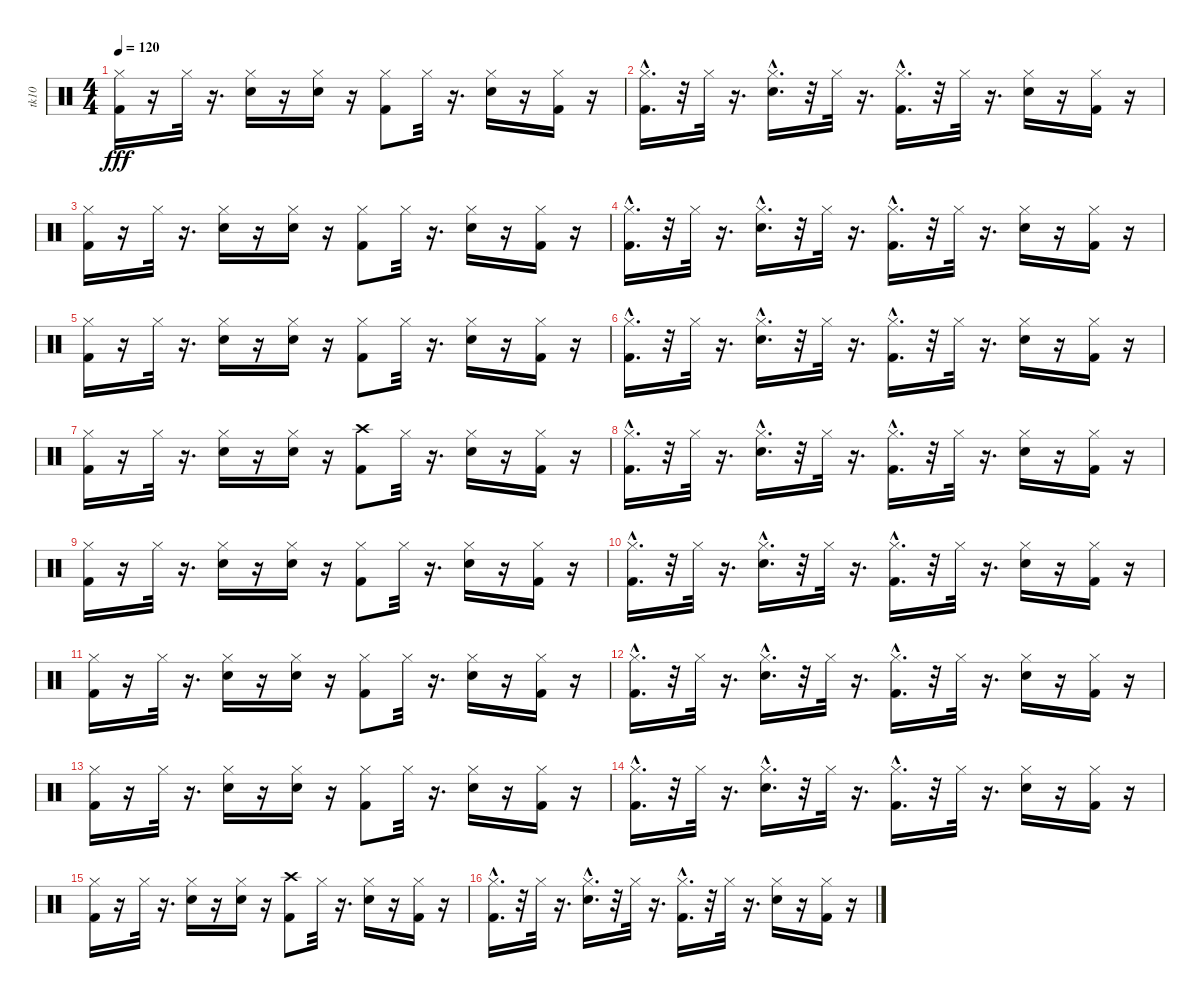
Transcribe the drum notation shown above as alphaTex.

\track ("tk10" "tk10") {instrument percussion}
\staff {score}
\articulation defaults
\ts (4 4)
\tempo 120
\clef neutral
\ks c
("Kick (hit) 2" "Hi-Hat (closed)").16{dy fff} r.16 "Hi-Hat (closed)".32 r.16{d} ("Snare (hit) 2" "Hi-Hat (closed)").16 r.16 ("Hi-Hat (closed)" "Snare (hit) 2").16 r.16 ("Hi-Hat (closed)" "Kick (hit) 2").8 "Hi-Hat (closed)".32 r.16{d} ("Hi-Hat (closed)" "Snare (hit) 2").16 r.16 ("Hi-Hat (closed)" "Kick (hit) 2").16 r.16 |
("Hi-Hat (closed)" "Kick (hit) 2"{hac}).16{d} r.32 "Hi-Hat (closed)".32 r.16{d} ("Snare (hit) 2"{hac} "Hi-Hat (closed)").16{d} r.32 "Hi-Hat (closed)".32 r.16{d} ("Kick (hit) 2"{hac} "Hi-Hat (closed)").16{d} r.32 "Hi-Hat (closed)".32 r.16{d} ("Hi-Hat (closed)" "Snare (hit) 2").16 r.16 ("Hi-Hat (closed)" "Kick (hit) 2").16 r.16 |
("Hi-Hat (closed)" "Kick (hit) 2").16 r.16 "Hi-Hat (closed)".32 r.16{d} ("Snare (hit) 2" "Hi-Hat (closed)").16 r.16 ("Hi-Hat (closed)" "Snare (hit) 2").16 r.16 ("Kick (hit) 2" "Hi-Hat (closed)").8 "Hi-Hat (closed)".32 r.16{d} ("Hi-Hat (closed)" "Snare (hit) 2").16 r.16 ("Hi-Hat (closed)" "Kick (hit) 2").16 r.16 |
("Kick (hit) 2"{hac} "Hi-Hat (closed)").16{d} r.32 "Hi-Hat (closed)".32 r.16{d} ("Hi-Hat (closed)" "Snare (hit) 2"{hac}).16{d} r.32 "Hi-Hat (closed)".32 r.16{d} ("Kick (hit) 2"{hac} "Hi-Hat (closed)").16{d} r.32 "Hi-Hat (closed)".32 r.16{d} ("Snare (hit) 2" "Hi-Hat (closed)").16 r.16 ("Hi-Hat (closed)" "Kick (hit) 2").16 r.16 |
("Hi-Hat (closed)" "Kick (hit) 2").16 r.16 "Hi-Hat (closed)".32 r.16{d} ("Hi-Hat (closed)" "Snare (hit) 2").16 r.16 ("Snare (hit) 2" "Hi-Hat (closed)").16 r.16 ("Hi-Hat (closed)" "Kick (hit) 2").8 "Hi-Hat (closed)".32 r.16{d} ("Snare (hit) 2" "Hi-Hat (closed)").16 r.16 ("Hi-Hat (closed)" "Kick (hit) 2").16 r.16 |
("Hi-Hat (closed)" "Kick (hit) 2"{hac}).16{d} r.32 "Hi-Hat (closed)".32 r.16{d} ("Hi-Hat (closed)" "Snare (hit) 2"{hac}).16{d} r.32 "Hi-Hat (closed)".32 r.16{d} ("Kick (hit) 2"{hac} "Hi-Hat (closed)").16{d} r.32 "Hi-Hat (closed)".32 r.16{d} ("Snare (hit) 2" "Hi-Hat (closed)").16 r.16 ("Kick (hit) 2" "Hi-Hat (closed)").16 r.16 |
("Hi-Hat (closed)" "Kick (hit) 2").16 r.16 "Hi-Hat (closed)".32 r.16{d} ("Snare (hit) 2" "Hi-Hat (closed)").16 r.16 ("Hi-Hat (closed)" "Snare (hit) 2").16 r.16 ("Crash high (hit)" "Kick (hit) 2").8 "Hi-Hat (closed)".32 r.16{d} ("Snare (hit) 2" "Hi-Hat (closed)").16 r.16 ("Hi-Hat (closed)" "Kick (hit) 2").16 r.16 |
("Hi-Hat (closed)" "Kick (hit) 2"{hac}).16{d} r.32 "Hi-Hat (closed)".32 r.16{d} ("Snare (hit) 2"{hac} "Hi-Hat (closed)").16{d} r.32 "Hi-Hat (closed)".32 r.16{d} ("Kick (hit) 2"{hac} "Hi-Hat (closed)").16{d} r.32 "Hi-Hat (closed)".32 r.16{d} ("Snare (hit) 2" "Hi-Hat (closed)").16 r.16 ("Hi-Hat (closed)" "Kick (hit) 2").16 r.16 |
("Kick (hit) 2" "Hi-Hat (closed)").16 r.16 "Hi-Hat (closed)".32 r.16{d} ("Snare (hit) 2" "Hi-Hat (closed)").16 r.16 ("Hi-Hat (closed)" "Snare (hit) 2").16 r.16 ("Kick (hit) 2" "Hi-Hat (closed)").8 "Hi-Hat (closed)".32 r.16{d} ("Hi-Hat (closed)" "Snare (hit) 2").16 r.16 ("Hi-Hat (closed)" "Kick (hit) 2").16 r.16 |
("Hi-Hat (closed)" "Kick (hit) 2"{hac}).16{d} r.32 "Hi-Hat (closed)".32 r.16{d} ("Hi-Hat (closed)" "Snare (hit) 2"{hac}).16{d} r.32 "Hi-Hat (closed)".32 r.16{d} ("Kick (hit) 2"{hac} "Hi-Hat (closed)").16{d} r.32 "Hi-Hat (closed)".32 r.16{d} ("Snare (hit) 2" "Hi-Hat (closed)").16 r.16 ("Hi-Hat (closed)" "Kick (hit) 2").16 r.16 |
("Hi-Hat (closed)" "Kick (hit) 2").16 r.16 "Hi-Hat (closed)".32 r.16{d} ("Hi-Hat (closed)" "Snare (hit) 2").16 r.16 ("Snare (hit) 2" "Hi-Hat (closed)").16 r.16 ("Hi-Hat (closed)" "Kick (hit) 2").8 "Hi-Hat (closed)".32 r.16{d} ("Hi-Hat (closed)" "Snare (hit) 2").16 r.16 ("Kick (hit) 2" "Hi-Hat (closed)").16 r.16 |
("Kick (hit) 2"{hac} "Hi-Hat (closed)").16{d} r.32 "Hi-Hat (closed)".32 r.16{d} ("Hi-Hat (closed)" "Snare (hit) 2"{hac}).16{d} r.32 "Hi-Hat (closed)".32 r.16{d} ("Kick (hit) 2"{hac} "Hi-Hat (closed)").16{d} r.32 "Hi-Hat (closed)".32 r.16{d} ("Snare (hit) 2" "Hi-Hat (closed)").16 r.16 ("Kick (hit) 2" "Hi-Hat (closed)").16 r.16 |
("Kick (hit) 2" "Hi-Hat (closed)").16 r.16 "Hi-Hat (closed)".32 r.16{d} ("Snare (hit) 2" "Hi-Hat (closed)").16 r.16 ("Hi-Hat (closed)" "Snare (hit) 2").16 r.16 ("Hi-Hat (closed)" "Kick (hit) 2").8 "Hi-Hat (closed)".32 r.16{d} ("Hi-Hat (closed)" "Snare (hit) 2").16 r.16 ("Hi-Hat (closed)" "Kick (hit) 2").16 r.16 |
("Hi-Hat (closed)" "Kick (hit) 2"{hac}).16{d} r.32 "Hi-Hat (closed)".32 r.16{d} ("Snare (hit) 2"{hac} "Hi-Hat (closed)").16{d} r.32 "Hi-Hat (closed)".32 r.16{d} ("Hi-Hat (closed)" "Kick (hit) 2"{hac}).16{d} r.32 "Hi-Hat (closed)".32 r.16{d} ("Hi-Hat (closed)" "Snare (hit) 2").16 r.16 ("Kick (hit) 2" "Hi-Hat (closed)").16 r.16 |
("Kick (hit) 2" "Hi-Hat (closed)").16 r.16 "Hi-Hat (closed)".32 r.16{d} ("Hi-Hat (closed)" "Snare (hit) 2").16 r.16 ("Hi-Hat (closed)" "Snare (hit) 2").16 r.16 ("Crash high (hit)" "Kick (hit) 2").8 "Hi-Hat (closed)".32 r.16{d} ("Hi-Hat (closed)" "Snare (hit) 2").16 r.16 ("Kick (hit) 2" "Hi-Hat (closed)").16 r.16 |
("Kick (hit) 2"{hac} "Hi-Hat (closed)").16{d} r.32 "Hi-Hat (closed)".32 r.16{d} ("Hi-Hat (closed)" "Snare (hit) 2"{hac}).16{d} r.32 "Hi-Hat (closed)".32 r.16{d} ("Hi-Hat (closed)" "Kick (hit) 2"{hac}).16{d} r.32 "Hi-Hat (closed)".32 r.16{d} ("Hi-Hat (closed)" "Snare (hit) 2").16 r.16 ("Hi-Hat (closed)" "Kick (hit) 2").16 r.16
